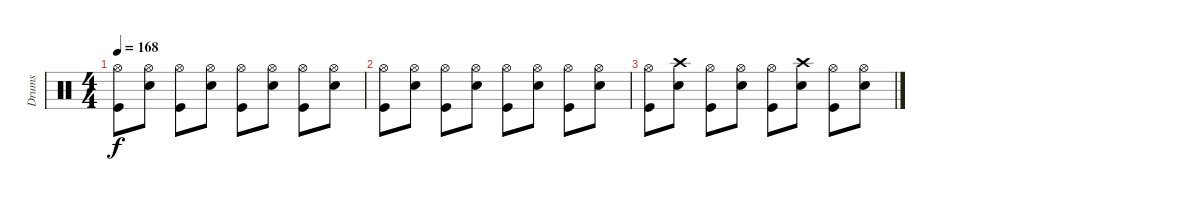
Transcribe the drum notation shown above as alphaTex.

\track ("Drums" "Drums") {instrument percussion}
\staff {score}
\articulation defaults
\ts (4 4)
\tempo 168
\clef neutral
\ks c
("Hi-Hat (open)" "Kick (hit)").8{dy f volume 3} ("Hi-Hat (open)" "Snare (hit) 2").8 ("Hi-Hat (open)" "Kick (hit)").8{volume 2} ("Hi-Hat (open)" "Snare (hit) 2").8 ("Hi-Hat (open)" "Kick (hit)").8 ("Hi-Hat (open)" "Snare (hit) 2").8 ("Hi-Hat (open)" "Kick (hit)").8 ("Hi-Hat (open)" "Snare (hit) 2").8 |
("Hi-Hat (open)" "Kick (hit)").8{volume 2} ("Hi-Hat (open)" "Snare (hit) 2").8 ("Hi-Hat (open)" "Kick (hit)").8{volume 1} ("Hi-Hat (open)" "Snare (hit) 2").8 ("Hi-Hat (open)" "Kick (hit)").8 ("Hi-Hat (open)" "Snare (hit) 2").8 ("Hi-Hat (open)" "Kick (hit)").8 ("Hi-Hat (open)" "Snare (hit) 2").8 |
("Hi-Hat (open)" "Kick (hit)").8{volume 1} ("Crash high (hit)" "Snare (hit) 2").8 ("Hi-Hat (open)" "Kick (hit)").8{volume 0} ("Hi-Hat (open)" "Snare (hit) 2").8 ("Hi-Hat (open)" "Kick (hit)").8 ("Crash high (hit)" "Snare (hit) 2").8 ("Hi-Hat (open)" "Kick (hit)").8 ("Hi-Hat (open)" "Snare (hit) 2").8
